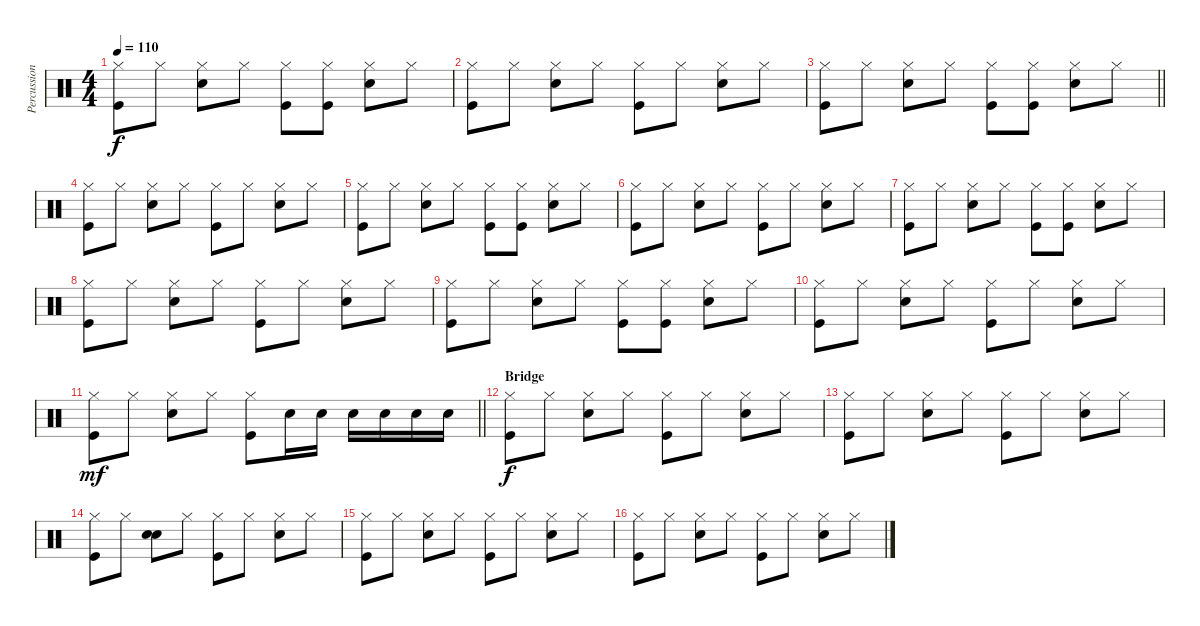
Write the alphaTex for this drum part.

\track ("Percussion" "Percussion") {instrument percussion}
\staff {score}
\articulation defaults
\ts (4 4)
\tempo 110
\clef neutral
\ks c
("Hi-Hat (closed)" "Kick (hit)").8{dy f} "Hi-Hat (closed)".8 ("Hi-Hat (closed)" "Snare (hit) 2").8 "Hi-Hat (closed)".8 ("Hi-Hat (closed)" "Kick (hit)").8 ("Hi-Hat (closed)" "Kick (hit)").8 ("Hi-Hat (closed)" "Snare (hit) 2").8 "Hi-Hat (closed)".8 |
("Hi-Hat (closed)" "Kick (hit)").8 "Hi-Hat (closed)".8 ("Hi-Hat (closed)" "Snare (hit) 2").8 "Hi-Hat (closed)".8 ("Hi-Hat (closed)" "Kick (hit)").8 "Hi-Hat (closed)".8 ("Hi-Hat (closed)" "Snare (hit) 2").8 "Hi-Hat (closed)".8 |
\barLineRight lightlight
("Hi-Hat (closed)" "Kick (hit)").8 "Hi-Hat (closed)".8 ("Hi-Hat (closed)" "Snare (hit) 2").8 "Hi-Hat (closed)".8 ("Hi-Hat (closed)" "Kick (hit)").8 ("Hi-Hat (closed)" "Kick (hit)").8 ("Hi-Hat (closed)" "Snare (hit) 2").8 "Hi-Hat (closed)".8 |
("Hi-Hat (closed)" "Kick (hit)").8 "Hi-Hat (closed)".8 ("Hi-Hat (closed)" "Snare (hit) 2").8 "Hi-Hat (closed)".8 ("Hi-Hat (closed)" "Kick (hit)").8 "Hi-Hat (closed)".8 ("Hi-Hat (closed)" "Snare (hit) 2").8 "Hi-Hat (closed)".8 |
("Hi-Hat (closed)" "Kick (hit)").8 "Hi-Hat (closed)".8 ("Hi-Hat (closed)" "Snare (hit) 2").8 "Hi-Hat (closed)".8 ("Hi-Hat (closed)" "Kick (hit)").8 ("Hi-Hat (closed)" "Kick (hit)").8 ("Hi-Hat (closed)" "Snare (hit) 2").8 "Hi-Hat (closed)".8 |
("Hi-Hat (closed)" "Kick (hit)").8 "Hi-Hat (closed)".8 ("Hi-Hat (closed)" "Snare (hit) 2").8 "Hi-Hat (closed)".8 ("Hi-Hat (closed)" "Kick (hit)").8 "Hi-Hat (closed)".8 ("Hi-Hat (closed)" "Snare (hit) 2").8 "Hi-Hat (closed)".8 |
("Hi-Hat (closed)" "Kick (hit)").8 "Hi-Hat (closed)".8 ("Hi-Hat (closed)" "Snare (hit) 2").8 "Hi-Hat (closed)".8 ("Hi-Hat (closed)" "Kick (hit)").8 ("Hi-Hat (closed)" "Kick (hit)").8 ("Hi-Hat (closed)" "Snare (hit) 2").8 "Hi-Hat (closed)".8 |
("Hi-Hat (closed)" "Kick (hit)").8 "Hi-Hat (closed)".8 ("Hi-Hat (closed)" "Snare (hit) 2").8 "Hi-Hat (closed)".8 ("Hi-Hat (closed)" "Kick (hit)").8 "Hi-Hat (closed)".8 ("Hi-Hat (closed)" "Snare (hit) 2").8 "Hi-Hat (closed)".8 |
("Hi-Hat (closed)" "Kick (hit)").8 "Hi-Hat (closed)".8 ("Hi-Hat (closed)" "Snare (hit) 2").8 "Hi-Hat (closed)".8 ("Hi-Hat (closed)" "Kick (hit)").8 ("Hi-Hat (closed)" "Kick (hit)").8 ("Hi-Hat (closed)" "Snare (hit) 2").8 "Hi-Hat (closed)".8 |
("Hi-Hat (closed)" "Kick (hit)").8 "Hi-Hat (closed)".8 ("Hi-Hat (closed)" "Snare (hit) 2").8 "Hi-Hat (closed)".8 ("Hi-Hat (closed)" "Kick (hit)").8 "Hi-Hat (closed)".8 ("Hi-Hat (closed)" "Snare (hit) 2").8 "Hi-Hat (closed)".8 |
\barLineRight lightlight
("Hi-Hat (closed)" "Kick (hit)").8{dy mf} "Hi-Hat (closed)".8 ("Hi-Hat (closed)" "Snare (hit) 2").8 "Hi-Hat (closed)".8 ("Hi-Hat (closed)" "Kick (hit)").8 "Snare (hit) 2".16 "Snare (hit) 2".16 "Snare (hit) 2".16 "Snare (hit) 2".16 "Snare (hit) 2".16 "Snare (hit) 2".16 |
\section ("" "Bridge")
("Hi-Hat (closed)" "Kick (hit)").8{dy f} "Hi-Hat (closed)".8 ("Hi-Hat (closed)" "Snare (hit) 2").8 "Hi-Hat (closed)".8 ("Hi-Hat (closed)" "Kick (hit)").8 "Hi-Hat (closed)".8 ("Hi-Hat (closed)" "Snare (hit) 2").8 "Hi-Hat (closed)".8 |
("Hi-Hat (closed)" "Kick (hit)").8 "Hi-Hat (closed)".8 ("Hi-Hat (closed)" "Snare (hit) 2").8 "Hi-Hat (closed)".8 ("Hi-Hat (closed)" "Kick (hit)").8 "Hi-Hat (closed)".8 ("Hi-Hat (closed)" "Snare (hit) 2").8 "Hi-Hat (closed)".8 |
("Hi-Hat (closed)" "Kick (hit)").8 "Hi-Hat (closed)".8 ("Snare (hit)" "Snare (hit) 2").8 "Hi-Hat (closed)".8 ("Hi-Hat (closed)" "Kick (hit)").8 "Hi-Hat (closed)".8 ("Hi-Hat (closed)" "Snare (hit) 2").8 "Hi-Hat (closed)".8 |
("Hi-Hat (closed)" "Kick (hit)").8 "Hi-Hat (closed)".8 ("Hi-Hat (closed)" "Snare (hit) 2").8 "Hi-Hat (closed)".8 ("Hi-Hat (closed)" "Kick (hit)").8 "Hi-Hat (closed)".8 ("Hi-Hat (closed)" "Snare (hit) 2").8 "Hi-Hat (closed)".8 |
("Hi-Hat (closed)" "Kick (hit)").8 "Hi-Hat (closed)".8 ("Hi-Hat (closed)" "Snare (hit) 2").8 "Hi-Hat (closed)".8 ("Hi-Hat (closed)" "Kick (hit)").8 "Hi-Hat (closed)".8 ("Hi-Hat (closed)" "Snare (hit) 2").8 "Hi-Hat (closed)".8
